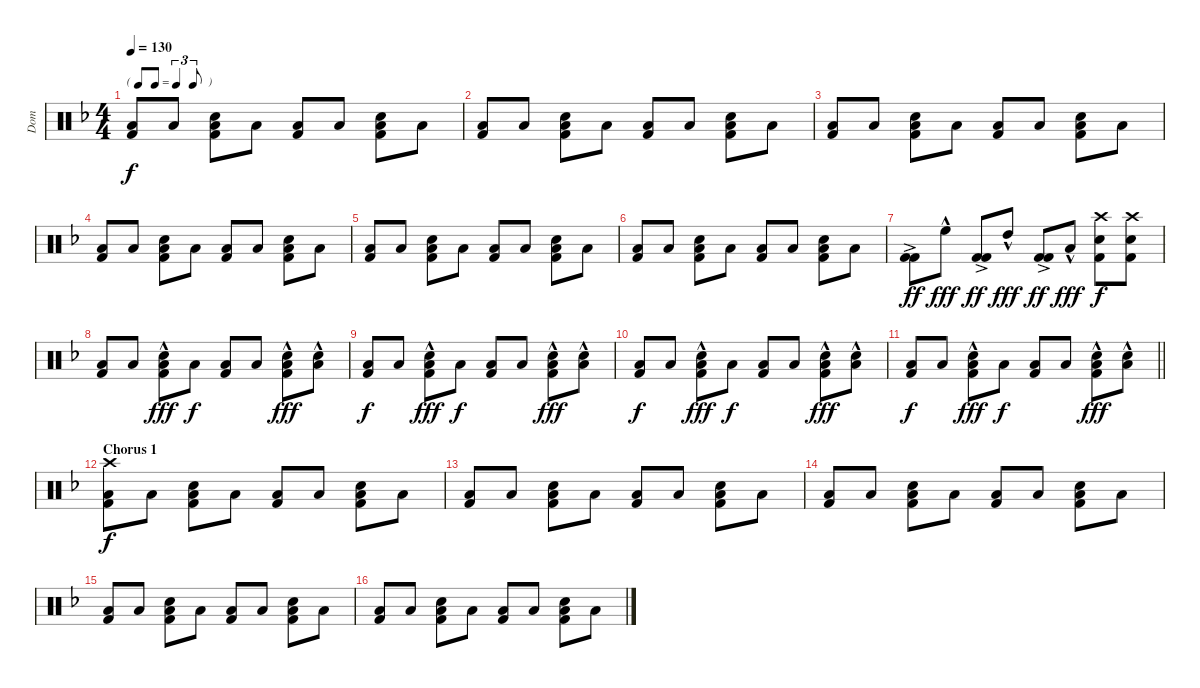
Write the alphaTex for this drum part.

\track ("Dom" "Dom") {instrument percussion}
\staff {score}
\articulation defaults
\ts (4 4)
\tf triplet8th
\tempo 130
\clef neutral
\ks dminor
("Low Tom (hit)" "Kick (hit) 2").8{dy f} "Low Tom (hit)".8 ("Electric Snare (hit)" "Low Tom (hit)" "Kick (hit) 2").8 "Low Tom (hit)".8 ("Low Tom (hit)" "Kick (hit) 2").8 "Low Tom (hit)".8 ("Electric Snare (hit)" "Low Tom (hit)" "Kick (hit) 2").8 "Low Tom (hit)".8 |
("Low Tom (hit)" "Kick (hit) 2").8 "Low Tom (hit)".8 ("Electric Snare (hit)" "Low Tom (hit)" "Kick (hit) 2").8 "Low Tom (hit)".8 ("Low Tom (hit)" "Kick (hit) 2").8 "Low Tom (hit)".8 ("Electric Snare (hit)" "Low Tom (hit)" "Kick (hit) 2").8 "Low Tom (hit)".8 |
("Low Tom (hit)" "Kick (hit) 2").8 "Low Tom (hit)".8 ("Electric Snare (hit)" "Low Tom (hit)" "Kick (hit) 2").8 "Low Tom (hit)".8 ("Low Tom (hit)" "Kick (hit) 2").8 "Low Tom (hit)".8 ("Electric Snare (hit)" "Low Tom (hit)" "Kick (hit) 2").8 "Low Tom (hit)".8 |
("Low Tom (hit)" "Kick (hit) 2").8 "Low Tom (hit)".8 ("Electric Snare (hit)" "Low Tom (hit)" "Kick (hit) 2").8 "Low Tom (hit)".8 ("Low Tom (hit)" "Kick (hit) 2").8 "Low Tom (hit)".8 ("Electric Snare (hit)" "Low Tom (hit)" "Kick (hit) 2").8 "Low Tom (hit)".8 |
("Low Tom (hit)" "Kick (hit) 2").8 "Low Tom (hit)".8 ("Electric Snare (hit)" "Low Tom (hit)" "Kick (hit) 2").8 "Low Tom (hit)".8 ("Low Tom (hit)" "Kick (hit) 2").8 "Low Tom (hit)".8 ("Electric Snare (hit)" "Low Tom (hit)" "Kick (hit) 2").8 "Low Tom (hit)".8 |
("Low Tom (hit)" "Kick (hit) 2").8 "Low Tom (hit)".8 ("Electric Snare (hit)" "Low Tom (hit)" "Kick (hit) 2").8 "Low Tom (hit)".8 ("Low Tom (hit)" "Kick (hit) 2").8 "Low Tom (hit)".8 ("Electric Snare (hit)" "Low Tom (hit)" "Kick (hit) 2").8 "Low Tom (hit)".8 |
("Kick (hit) 2"{ac} "Kick (hit) 2").8{dy ff} "High Floor Tom (hit)"{hac}.8{dy fff} ("Kick (hit) 2"{ac} "Kick (hit) 2").8{dy ff} "High Tom (hit)"{hac}.8{dy fff} ("Kick (hit) 2"{ac} "Kick (hit) 2").8{dy ff} "Low Tom (hit)"{hac}.8{dy fff} ("Crash high (hit)" "Electric Snare (hit)" "Kick (hit) 2").8{dy f} ("Crash high (hit)" "Electric Snare (hit)" "Kick (hit) 2").8 |
("Low Tom (hit)" "Kick (hit) 2").8{volume 16} "Low Tom (hit)".8 ("Electric Snare (hit)"{hac} "Low Tom (hit)" "Kick (hit) 2").8{dy fff} "Low Tom (hit)".8{dy f} ("Low Tom (hit)" "Kick (hit) 2").8 "Low Tom (hit)".8 ("Electric Snare (hit)"{hac} "Low Tom (hit)" "Kick (hit) 2").8{dy fff} ("Electric Snare (hit)"{hac} "Low Tom (hit)").8 |
("Low Tom (hit)" "Kick (hit) 2").8{dy f} "Low Tom (hit)".8 ("Electric Snare (hit)"{hac} "Low Tom (hit)" "Kick (hit) 2").8{dy fff} "Low Tom (hit)".8{dy f} ("Low Tom (hit)" "Kick (hit) 2").8 "Low Tom (hit)".8 ("Electric Snare (hit)"{hac} "Low Tom (hit)"{hac} "Kick (hit) 2").8{dy fff} ("Electric Snare (hit)"{hac} "Low Tom (hit)"{hac}).8 |
("Low Tom (hit)" "Kick (hit) 2").8{dy f} "Low Tom (hit)".8 ("Electric Snare (hit)"{hac} "Low Tom (hit)" "Kick (hit) 2").8{dy fff} "Low Tom (hit)".8{dy f} ("Low Tom (hit)" "Kick (hit) 2").8 "Low Tom (hit)".8 ("Electric Snare (hit)"{hac} "Low Tom (hit)"{hac} "Kick (hit) 2").8{dy fff} ("Electric Snare (hit)"{hac} "Low Tom (hit)"{hac}).8 |
\barLineRight lightlight
("Low Tom (hit)" "Kick (hit) 2").8{dy f} "Low Tom (hit)".8 ("Electric Snare (hit)"{hac} "Low Tom (hit)" "Kick (hit) 2").8{dy fff} "Low Tom (hit)".8{dy f} ("Low Tom (hit)" "Kick (hit) 2").8 "Low Tom (hit)".8 ("Electric Snare (hit)"{hac} "Low Tom (hit)"{hac} "Kick (hit) 2").8{dy fff} ("Electric Snare (hit)"{hac} "Low Tom (hit)"{hac}).8 |
\section ("" "Chorus 1")
("Crash high (hit)" "Low Tom (hit)" "Kick (hit) 2").8{dy f volume 12} "Low Tom (hit)".8 ("Electric Snare (hit)" "Low Tom (hit)" "Kick (hit) 2").8 "Low Tom (hit)".8 ("Low Tom (hit)" "Kick (hit) 2").8 "Low Tom (hit)".8 ("Electric Snare (hit)" "Low Tom (hit)" "Kick (hit) 2").8 "Low Tom (hit)".8 |
("Low Tom (hit)" "Kick (hit) 2").8 "Low Tom (hit)".8 ("Electric Snare (hit)" "Low Tom (hit)" "Kick (hit) 2").8 "Low Tom (hit)".8 ("Low Tom (hit)" "Kick (hit) 2").8 "Low Tom (hit)".8 ("Electric Snare (hit)" "Low Tom (hit)" "Kick (hit) 2").8 "Low Tom (hit)".8 |
("Low Tom (hit)" "Kick (hit) 2").8 "Low Tom (hit)".8 ("Electric Snare (hit)" "Low Tom (hit)" "Kick (hit) 2").8 "Low Tom (hit)".8 ("Low Tom (hit)" "Kick (hit) 2").8 "Low Tom (hit)".8 ("Electric Snare (hit)" "Low Tom (hit)" "Kick (hit) 2").8 "Low Tom (hit)".8 |
("Low Tom (hit)" "Kick (hit) 2").8 "Low Tom (hit)".8 ("Electric Snare (hit)" "Low Tom (hit)" "Kick (hit) 2").8 "Low Tom (hit)".8 ("Low Tom (hit)" "Kick (hit) 2").8 "Low Tom (hit)".8 ("Electric Snare (hit)" "Low Tom (hit)" "Kick (hit) 2").8 "Low Tom (hit)".8 |
("Low Tom (hit)" "Kick (hit) 2").8 "Low Tom (hit)".8 ("Electric Snare (hit)" "Low Tom (hit)" "Kick (hit) 2").8 "Low Tom (hit)".8 ("Low Tom (hit)" "Kick (hit) 2").8 "Low Tom (hit)".8 ("Electric Snare (hit)" "Low Tom (hit)" "Kick (hit) 2").8 "Low Tom (hit)".8
